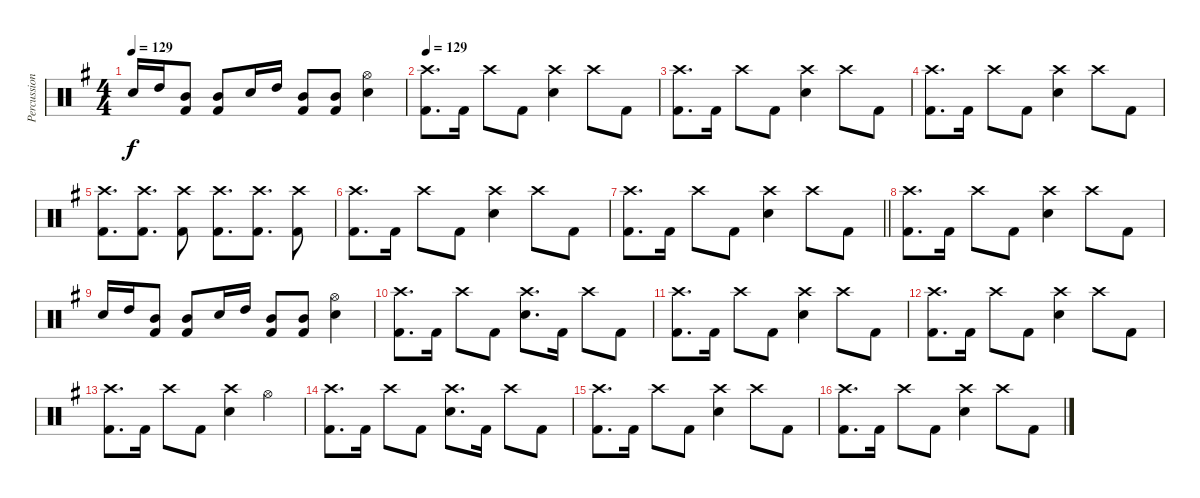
\track ("Percussion" "Percussion") {instrument percussion}
\staff {score}
\articulation defaults
\ts (4 4)
\tempo 129
\clef neutral
\ks g "Electric Snare (hit)".16{dy f} "High Tom (hit)".16
("Mid Tom (hit)" "Kick (hit) 2").8 ("Mid Tom (hit)" "Kick (hit) 2").8 "Electric Snare (hit)".16 "High Tom (hit)".16 ("Mid Tom (hit)" "Kick (hit) 2").8 ("Kick (hit) 2" "Mid Tom (hit)").8 ("Electric Snare (hit)" "Hi-Hat (open)").4 |
\tempo 129
("Kick (hit) 2" "Crash high (hit)").8{d} "Kick (hit) 2".16 "Crash high (hit)".8 "Kick (hit) 2".8 ("Electric Snare (hit)" "Crash high (hit)").4 "Crash high (hit)".8 "Kick (hit) 2".8 |
("Kick (hit) 2" "Crash high (hit)").8{d} "Kick (hit) 2".16 "Crash high (hit)".8 "Kick (hit) 2".8 ("Electric Snare (hit)" "Crash high (hit)").4 "Crash high (hit)".8 "Kick (hit) 2".8 |
("Kick (hit) 2" "Crash high (hit)").8{d} "Kick (hit) 2".16 "Crash high (hit)".8 "Kick (hit) 2".8 ("Electric Snare (hit)" "Crash high (hit)").4 "Crash high (hit)".8 "Kick (hit) 2".8 |
("Crash high (hit)" "Kick (hit) 2").8{d} ("Crash high (hit)" "Kick (hit) 2").8{d} ("Crash high (hit)" "Kick (hit) 2").8 ("Kick (hit) 2" "Crash high (hit)").8{d} ("Kick (hit) 2" "Crash high (hit)").8{d} ("Crash high (hit)" "Kick (hit) 2").8 |
("Kick (hit) 2" "Crash high (hit)").8{d} "Kick (hit) 2".16 "Crash high (hit)".8 "Kick (hit) 2".8 ("Electric Snare (hit)" "Crash high (hit)").4 "Crash high (hit)".8 "Kick (hit) 2".8 |
\barLineRight lightlight
("Kick (hit) 2" "Crash high (hit)").8{d} "Kick (hit) 2".16 "Crash high (hit)".8 "Kick (hit) 2".8 ("Electric Snare (hit)" "Crash high (hit)").4 "Crash high (hit)".8 "Kick (hit) 2".8 |
("Kick (hit) 2" "Crash high (hit)").8{d} "Kick (hit) 2".16 "Crash high (hit)".8 "Kick (hit) 2".8 ("Electric Snare (hit)" "Crash high (hit)").4 "Crash high (hit)".8 "Kick (hit) 2".8 |
"Electric Snare (hit)".16 "High Tom (hit)".16 ("Mid Tom (hit)" "Kick (hit) 2").8 ("Mid Tom (hit)" "Kick (hit) 2").8 "Electric Snare (hit)".16 "High Tom (hit)".16 ("Mid Tom (hit)" "Kick (hit) 2").8 ("Kick (hit) 2" "Mid Tom (hit)").8 ("Electric Snare (hit)" "Hi-Hat (open)").4 |
("Kick (hit) 2" "Crash high (hit)").8{d} "Kick (hit) 2".16 "Crash high (hit)".8 "Kick (hit) 2".8 ("Electric Snare (hit)" "Crash high (hit)").8{d} "Kick (hit) 2".16 "Crash high (hit)".8 "Kick (hit) 2".8 |
("Kick (hit) 2" "Crash high (hit)").8{d} "Kick (hit) 2".16 "Crash high (hit)".8 "Kick (hit) 2".8 ("Electric Snare (hit)" "Crash high (hit)").4 "Crash high (hit)".8 "Kick (hit) 2".8 |
("Kick (hit) 2" "Crash high (hit)").8{d} "Kick (hit) 2".16 "Crash high (hit)".8 "Kick (hit) 2".8 ("Electric Snare (hit)" "Crash high (hit)").4 "Crash high (hit)".8 "Kick (hit) 2".8 |
("Kick (hit) 2" "Crash high (hit)").8{d} "Kick (hit) 2".16 "Crash high (hit)".8 "Kick (hit) 2".8 ("Electric Snare (hit)" "Crash high (hit)").4 "Hi-Hat (open)".4 |
("Kick (hit) 2" "Crash high (hit)").8{d} "Kick (hit) 2".16 "Crash high (hit)".8 "Kick (hit) 2".8 ("Electric Snare (hit)" "Crash high (hit)").8{d} "Kick (hit) 2".16 "Crash high (hit)".8 "Kick (hit) 2".8 |
("Kick (hit) 2" "Crash high (hit)").8{d} "Kick (hit) 2".16 "Crash high (hit)".8 "Kick (hit) 2".8 ("Electric Snare (hit)" "Crash high (hit)").4 "Crash high (hit)".8 "Kick (hit) 2".8 |
("Kick (hit) 2" "Crash high (hit)").8{d} "Kick (hit) 2".16 "Crash high (hit)".8 "Kick (hit) 2".8 ("Electric Snare (hit)" "Crash high (hit)").4 "Crash high (hit)".8 "Kick (hit) 2".8
